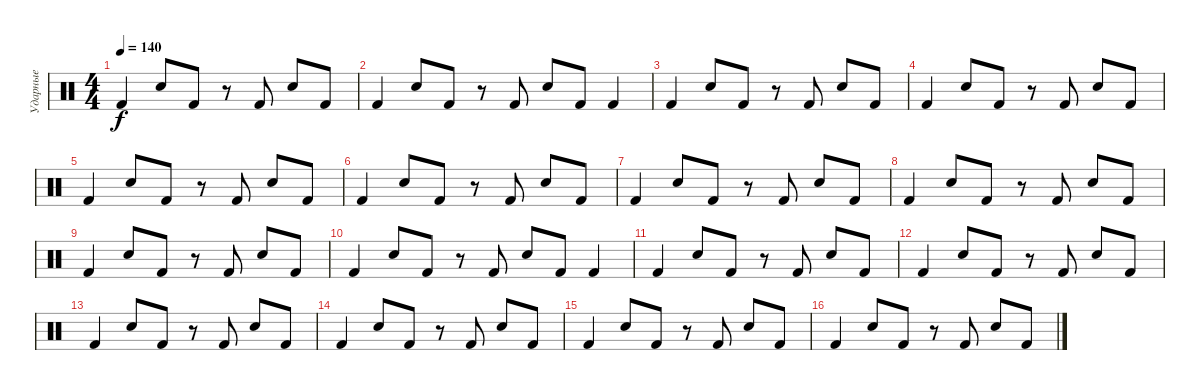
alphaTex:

\track ("Ударные" "Ударные") {instrument percussion}
\staff {score}
\articulation defaults
\ts (4 4)
\tempo 140
\clef neutral
\ks c "Kick (hit) 2".4{dy f} "Snare (hit) 2".8 "Kick (hit) 2".8
r.8 "Kick (hit) 2".8 "Snare (hit) 2".8 "Kick (hit) 2".8 |
"Kick (hit) 2".4 "Snare (hit) 2".8 "Kick (hit) 2".8 r.8 "Kick (hit) 2".8 "Snare (hit) 2".8 "Kick (hit) 2".8 "Kick (hit) 2".4 |
"Kick (hit) 2".4 "Snare (hit) 2".8 "Kick (hit) 2".8 r.8 "Kick (hit) 2".8 "Snare (hit) 2".8 "Kick (hit) 2".8 |
"Kick (hit) 2".4 "Snare (hit) 2".8 "Kick (hit) 2".8 r.8 "Kick (hit) 2".8 "Snare (hit) 2".8 "Kick (hit) 2".8 |
"Kick (hit) 2".4 "Snare (hit) 2".8 "Kick (hit) 2".8 r.8 "Kick (hit) 2".8 "Snare (hit) 2".8 "Kick (hit) 2".8 |
"Kick (hit) 2".4 "Snare (hit) 2".8 "Kick (hit) 2".8 r.8 "Kick (hit) 2".8 "Snare (hit) 2".8 "Kick (hit) 2".8 |
"Kick (hit) 2".4 "Snare (hit) 2".8 "Kick (hit) 2".8 r.8 "Kick (hit) 2".8 "Snare (hit) 2".8 "Kick (hit) 2".8 |
"Kick (hit) 2".4 "Snare (hit) 2".8 "Kick (hit) 2".8 r.8 "Kick (hit) 2".8 "Snare (hit) 2".8 "Kick (hit) 2".8 |
"Kick (hit) 2".4 "Snare (hit) 2".8 "Kick (hit) 2".8 r.8 "Kick (hit) 2".8 "Snare (hit) 2".8 "Kick (hit) 2".8 |
"Kick (hit) 2".4 "Snare (hit) 2".8 "Kick (hit) 2".8 r.8 "Kick (hit) 2".8 "Snare (hit) 2".8 "Kick (hit) 2".8 "Kick (hit) 2".4 |
"Kick (hit) 2".4 "Snare (hit) 2".8 "Kick (hit) 2".8 r.8 "Kick (hit) 2".8 "Snare (hit) 2".8 "Kick (hit) 2".8 |
"Kick (hit) 2".4 "Snare (hit) 2".8 "Kick (hit) 2".8 r.8 "Kick (hit) 2".8 "Snare (hit) 2".8 "Kick (hit) 2".8 |
"Kick (hit) 2".4 "Snare (hit) 2".8 "Kick (hit) 2".8 r.8 "Kick (hit) 2".8 "Snare (hit) 2".8 "Kick (hit) 2".8 |
"Kick (hit) 2".4 "Snare (hit) 2".8 "Kick (hit) 2".8 r.8 "Kick (hit) 2".8 "Snare (hit) 2".8 "Kick (hit) 2".8 |
"Kick (hit) 2".4 "Snare (hit) 2".8 "Kick (hit) 2".8 r.8 "Kick (hit) 2".8 "Snare (hit) 2".8 "Kick (hit) 2".8 |
"Kick (hit) 2".4 "Snare (hit) 2".8 "Kick (hit) 2".8 r.8 "Kick (hit) 2".8 "Snare (hit) 2".8 "Kick (hit) 2".8
